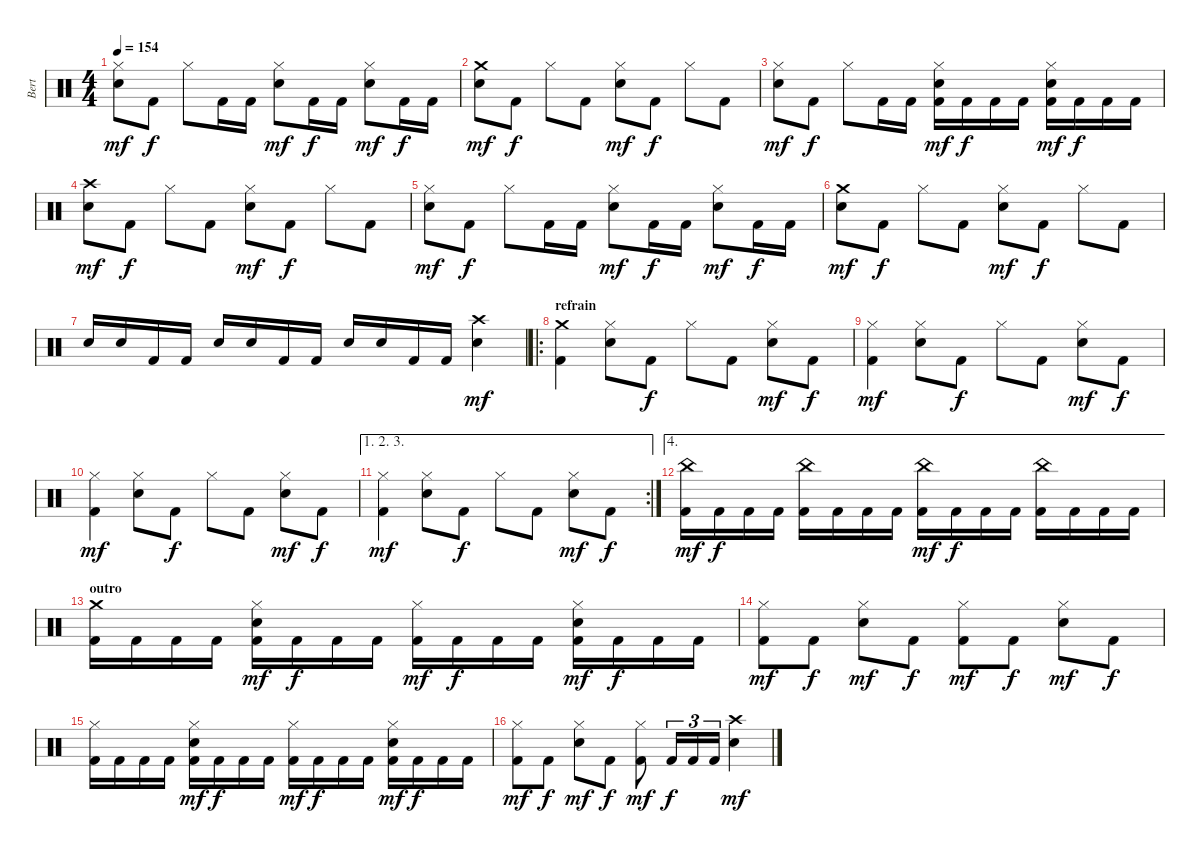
\track ("Bert" "Bert") {instrument percussion}
\staff {score}
\articulation defaults
\ts (4 4)
\tempo 154
\clef neutral
\ks c
("Hi-Hat (closed)" "Snare (hit) 2").8{dy mf} "Kick (hit) 2".8{dy f} "Hi-Hat (closed)".8 "Kick (hit) 2".16 "Kick (hit) 2".16 ("Hi-Hat (closed)" "Snare (hit) 2").8{dy mf} "Kick (hit) 2".16{dy f} "Kick (hit) 2".16 ("Hi-Hat (closed)" "Snare (hit) 2").8{dy mf} "Kick (hit) 2".16{dy f} "Kick (hit) 2".16 |
("Crash medium (hit)" "Snare (hit) 2").8{dy mf} "Kick (hit) 2".8{dy f} "Hi-Hat (closed)".8 "Kick (hit) 2".8 ("Hi-Hat (closed)" "Snare (hit) 2").8{dy mf} "Kick (hit) 2".8{dy f} "Hi-Hat (closed)".8 "Kick (hit) 2".8 |
("Hi-Hat (closed)" "Snare (hit) 2").8{dy mf} "Kick (hit) 2".8{dy f} "Hi-Hat (closed)".8 "Kick (hit) 2".16 "Kick (hit) 2".16 ("Hi-Hat (closed)" "Snare (hit) 2" "Kick (hit) 2").16{dy mf} "Kick (hit) 2".16{dy f} "Kick (hit) 2".16 "Kick (hit) 2".16 ("Hi-Hat (closed)" "Snare (hit) 2" "Kick (hit) 2").16{dy mf} "Kick (hit) 2".16{dy f} "Kick (hit) 2".16 "Kick (hit) 2".16 |
("Crash high (hit)" "Snare (hit) 2").8{dy mf} "Kick (hit) 2".8{dy f} "Hi-Hat (closed)".8 "Kick (hit) 2".8 ("Hi-Hat (closed)" "Snare (hit) 2").8{dy mf} "Kick (hit) 2".8{dy f} "Hi-Hat (closed)".8 "Kick (hit) 2".8 |
("Hi-Hat (closed)" "Snare (hit) 2").8{dy mf} "Kick (hit) 2".8{dy f} "Hi-Hat (closed)".8 "Kick (hit) 2".16 "Kick (hit) 2".16 ("Hi-Hat (closed)" "Snare (hit) 2").8{dy mf} "Kick (hit) 2".16{dy f} "Kick (hit) 2".16 ("Hi-Hat (closed)" "Snare (hit) 2").8{dy mf} "Kick (hit) 2".16{dy f} "Kick (hit) 2".16 |
("Crash medium (hit)" "Snare (hit) 2").8{dy mf} "Kick (hit) 2".8{dy f} "Hi-Hat (closed)".8 "Kick (hit) 2".8 ("Hi-Hat (closed)" "Snare (hit) 2").8{dy mf} "Kick (hit) 2".8{dy f} "Hi-Hat (closed)".8 "Kick (hit) 2".8 |
"Snare (hit) 2".16 "Snare (hit) 2".16 "Kick (hit) 2".16 "Kick (hit) 2".16 "Snare (hit) 2".16 "Snare (hit) 2".16 "Kick (hit) 2".16 "Kick (hit) 2".16 "Snare (hit) 2".16 "Snare (hit) 2".16 "Kick (hit) 2".16 "Kick (hit) 2".16 ("Crash high (hit)" "Snare (hit) 2").4{dy mf} |
\ro
\section ("" "refrain")
("Crash medium (hit)" "Kick (hit) 2").4 ("Hi-Hat (closed)" "Snare (hit) 2").8 "Kick (hit) 2".8{dy f} "Hi-Hat (closed)".8 "Kick (hit) 2".8 ("Hi-Hat (closed)" "Snare (hit) 2").8{dy mf} "Kick (hit) 2".8{dy f} |
("Hi-Hat (closed)" "Kick (hit) 2").4{dy mf} ("Hi-Hat (closed)" "Snare (hit) 2").8 "Kick (hit) 2".8{dy f} "Hi-Hat (closed)".8 "Kick (hit) 2".8 ("Hi-Hat (closed)" "Snare (hit) 2").8{dy mf} "Kick (hit) 2".8{dy f} |
("Hi-Hat (closed)" "Kick (hit) 2").4{dy mf} ("Hi-Hat (closed)" "Snare (hit) 2").8 "Kick (hit) 2".8{dy f} "Hi-Hat (closed)".8 "Kick (hit) 2".8 ("Hi-Hat (closed)" "Snare (hit) 2").8{dy mf} "Kick (hit) 2".8{dy f} |
\ae (1 2 3)
\rc 2
("Hi-Hat (closed)" "Kick (hit) 2").4{dy mf} ("Hi-Hat (closed)" "Snare (hit) 2").8 "Kick (hit) 2".8{dy f} "Hi-Hat (closed)".8 "Kick (hit) 2".8 ("Hi-Hat (closed)" "Snare (hit) 2").8{dy mf} "Kick (hit) 2".8{dy f} |
\ae 4
("China (hit)" "Kick (hit) 2").16{dy mf} "Kick (hit) 2".16{dy f} "Kick (hit) 2".16 "Kick (hit) 2".16 ("China (hit)" "Kick (hit) 2").16 "Kick (hit) 2".16 "Kick (hit) 2".16 "Kick (hit) 2".16 ("China (hit)" "Kick (hit) 2").16{dy mf} "Kick (hit) 2".16{dy f} "Kick (hit) 2".16 "Kick (hit) 2".16 ("China (hit)" "Kick (hit) 2").16 "Kick (hit) 2".16 "Kick (hit) 2".16 "Kick (hit) 2".16 |
\section ("" "outro")
("Crash medium (hit)" "Kick (hit) 2").16 "Kick (hit) 2".16 "Kick (hit) 2".16 "Kick (hit) 2".16 ("Hi-Hat (closed)" "Snare (hit) 2" "Kick (hit) 2").16{dy mf} "Kick (hit) 2".16{dy f} "Kick (hit) 2".16 "Kick (hit) 2".16 ("Hi-Hat (closed)" "Kick (hit) 2").16{dy mf} "Kick (hit) 2".16{dy f} "Kick (hit) 2".16 "Kick (hit) 2".16 ("Hi-Hat (closed)" "Snare (hit) 2" "Kick (hit) 2").16{dy mf} "Kick (hit) 2".16{dy f} "Kick (hit) 2".16 "Kick (hit) 2".16 |
("Hi-Hat (closed)" "Kick (hit) 2").8{dy mf} "Kick (hit) 2".8{dy f} ("Hi-Hat (closed)" "Snare (hit) 2").8{dy mf} "Kick (hit) 2".8{dy f} ("Hi-Hat (closed)" "Kick (hit) 2").8{dy mf} "Kick (hit) 2".8{dy f} ("Hi-Hat (closed)" "Snare (hit) 2").8{dy mf} "Kick (hit) 2".8{dy f} |
("Hi-Hat (closed)" "Kick (hit) 2").16 "Kick (hit) 2".16 "Kick (hit) 2".16 "Kick (hit) 2".16 ("Hi-Hat (closed)" "Snare (hit) 2" "Kick (hit) 2").16{dy mf} "Kick (hit) 2".16{dy f} "Kick (hit) 2".16 "Kick (hit) 2".16 ("Hi-Hat (closed)" "Kick (hit) 2").16{dy mf} "Kick (hit) 2".16{dy f} "Kick (hit) 2".16 "Kick (hit) 2".16 ("Hi-Hat (closed)" "Snare (hit) 2" "Kick (hit) 2").16{dy mf} "Kick (hit) 2".16{dy f} "Kick (hit) 2".16 "Kick (hit) 2".16 |
("Hi-Hat (closed)" "Kick (hit) 2").8{dy mf} "Kick (hit) 2".8{dy f} ("Hi-Hat (closed)" "Snare (hit) 2").8{dy mf} "Kick (hit) 2".8{dy f} ("Hi-Hat (closed)" "Kick (hit) 2").8{dy mf} "Kick (hit) 2".16{tu (3 2) dy f} "Kick (hit) 2".16{tu (3 2)} "Kick (hit) 2".16{tu (3 2)} ("Crash high (hit)" "Snare (hit) 2").4{dy mf}
